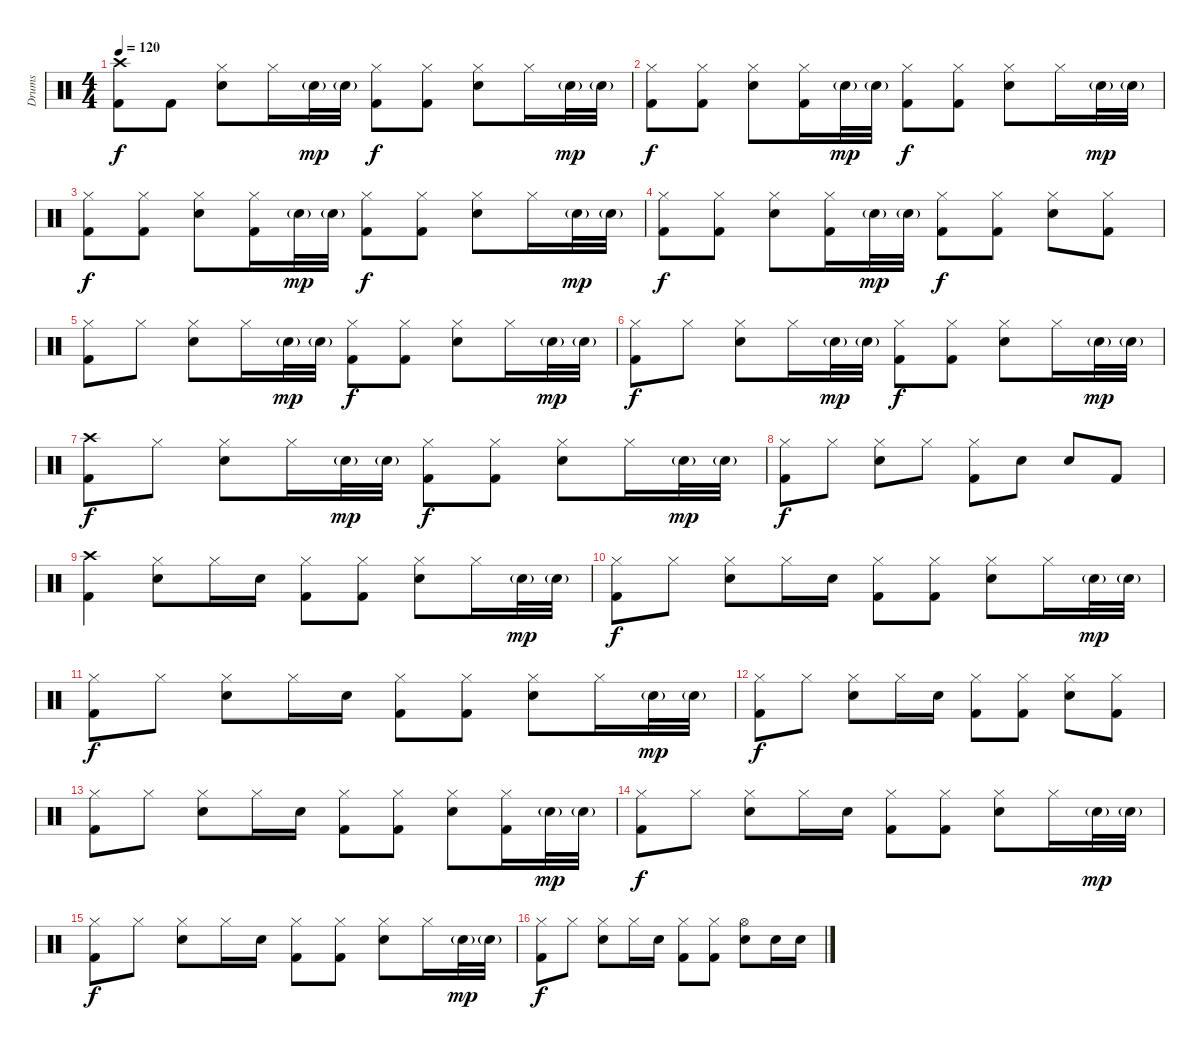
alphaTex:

\track ("Drums" "Drums") {instrument percussion}
\staff {score}
\articulation defaults
\ts (4 4)
\tempo 120
\clef neutral
\ks c
("Crash high (hit)" "Kick (hit) 2").8{dy f} "Kick (hit) 2".8 ("Hi-Hat (closed)" "Snare (hit) 2").8 "Hi-Hat (closed)".16 "Snare (hit) 2"{g}.32{dy mp} "Snare (hit) 2"{g}.32 ("Hi-Hat (closed)" "Kick (hit) 2").8{dy f} ("Hi-Hat (closed)" "Kick (hit) 2").8 ("Hi-Hat (closed)" "Snare (hit) 2").8 "Hi-Hat (closed)".16 "Snare (hit) 2"{g}.32{dy mp} "Snare (hit) 2"{g}.32 |
("Hi-Hat (closed)" "Kick (hit) 2").8{dy f} ("Hi-Hat (closed)" "Kick (hit) 2").8 ("Hi-Hat (closed)" "Snare (hit) 2").8 ("Hi-Hat (closed)" "Kick (hit) 2").16 "Snare (hit) 2"{g}.32{dy mp} "Snare (hit) 2"{g}.32 ("Hi-Hat (closed)" "Kick (hit) 2").8{dy f} ("Hi-Hat (closed)" "Kick (hit) 2").8 ("Hi-Hat (closed)" "Snare (hit) 2").8 "Hi-Hat (closed)".16 "Snare (hit) 2"{g}.32{dy mp} "Snare (hit) 2"{g}.32 |
("Hi-Hat (closed)" "Kick (hit) 2").8{dy f} ("Hi-Hat (closed)" "Kick (hit) 2").8 ("Hi-Hat (closed)" "Snare (hit) 2").8 ("Hi-Hat (closed)" "Kick (hit) 2").16 "Snare (hit) 2"{g}.32{dy mp} "Snare (hit) 2"{g}.32 ("Hi-Hat (closed)" "Kick (hit) 2").8{dy f} ("Hi-Hat (closed)" "Kick (hit) 2").8 ("Hi-Hat (closed)" "Snare (hit) 2").8 "Hi-Hat (closed)".16 "Snare (hit) 2"{g}.32{dy mp} "Snare (hit) 2"{g}.32 |
("Hi-Hat (closed)" "Kick (hit) 2").8{dy f} ("Hi-Hat (closed)" "Kick (hit) 2").8 ("Hi-Hat (closed)" "Snare (hit) 2").8 ("Hi-Hat (closed)" "Kick (hit) 2").16 "Snare (hit) 2"{g}.32{dy mp} "Snare (hit) 2"{g}.32 ("Hi-Hat (closed)" "Kick (hit) 2").8{dy f} ("Hi-Hat (closed)" "Kick (hit) 2").8 ("Hi-Hat (closed)" "Snare (hit) 2").8 ("Hi-Hat (closed)" "Kick (hit) 2").8 |
("Hi-Hat (closed)" "Kick (hit) 2").8 "Hi-Hat (closed)".8 ("Hi-Hat (closed)" "Snare (hit) 2").8 "Hi-Hat (closed)".16 "Snare (hit) 2"{g}.32{dy mp} "Snare (hit) 2"{g}.32 ("Hi-Hat (closed)" "Kick (hit) 2").8{dy f} ("Hi-Hat (closed)" "Kick (hit) 2").8 ("Hi-Hat (closed)" "Snare (hit) 2").8 "Hi-Hat (closed)".16 "Snare (hit) 2"{g}.32{dy mp} "Snare (hit) 2"{g}.32 |
("Hi-Hat (closed)" "Kick (hit) 2").8{dy f} "Hi-Hat (closed)".8 ("Hi-Hat (closed)" "Snare (hit) 2").8 "Hi-Hat (closed)".16 "Snare (hit) 2"{g}.32{dy mp} "Snare (hit) 2"{g}.32 ("Hi-Hat (closed)" "Kick (hit) 2").8{dy f} ("Hi-Hat (closed)" "Kick (hit) 2").8 ("Hi-Hat (closed)" "Snare (hit) 2").8 "Hi-Hat (closed)".16 "Snare (hit) 2"{g}.32{dy mp} "Snare (hit) 2"{g}.32 |
("Crash high (hit)" "Kick (hit) 2").8{dy f} "Hi-Hat (closed)".8 ("Hi-Hat (closed)" "Snare (hit) 2").8 "Hi-Hat (closed)".16 "Snare (hit) 2"{g}.32{dy mp} "Snare (hit) 2"{g}.32 ("Hi-Hat (closed)" "Kick (hit) 2").8{dy f} ("Hi-Hat (closed)" "Kick (hit) 2").8 ("Hi-Hat (closed)" "Snare (hit) 2").8 "Hi-Hat (closed)".16 "Snare (hit) 2"{g}.32{dy mp} "Snare (hit) 2"{g}.32 |
("Hi-Hat (closed)" "Kick (hit) 2").8{dy f} "Hi-Hat (closed)".8 ("Hi-Hat (closed)" "Snare (hit) 2").8 "Hi-Hat (closed)".8 ("Hi-Hat (closed)" "Kick (hit) 2").8 "Snare (hit) 2".8 "Snare (hit) 2".8 "Kick (hit) 2".8 |
("Crash high (hit)" "Kick (hit) 2").4 ("Hi-Hat (closed)" "Snare (hit) 2").8 "Hi-Hat (closed)".16 "Snare (hit) 2".16 ("Hi-Hat (closed)" "Kick (hit) 2").8 ("Hi-Hat (closed)" "Kick (hit) 2").8 ("Hi-Hat (closed)" "Snare (hit) 2").8 "Hi-Hat (closed)".16 "Snare (hit) 2"{g}.32{dy mp} "Snare (hit) 2"{g}.32 |
("Hi-Hat (closed)" "Kick (hit) 2").8{dy f} "Hi-Hat (closed)".8 ("Hi-Hat (closed)" "Snare (hit) 2").8 "Hi-Hat (closed)".16 "Snare (hit) 2".16 ("Hi-Hat (closed)" "Kick (hit) 2").8 ("Hi-Hat (closed)" "Kick (hit) 2").8 ("Hi-Hat (closed)" "Snare (hit) 2").8 "Hi-Hat (closed)".16 "Snare (hit) 2"{g}.32{dy mp} "Snare (hit) 2"{g}.32 |
("Hi-Hat (closed)" "Kick (hit) 2").8{dy f} "Hi-Hat (closed)".8 ("Hi-Hat (closed)" "Snare (hit) 2").8 "Hi-Hat (closed)".16 "Snare (hit) 2".16 ("Hi-Hat (closed)" "Kick (hit) 2").8 ("Hi-Hat (closed)" "Kick (hit) 2").8 ("Hi-Hat (closed)" "Snare (hit) 2").8 "Hi-Hat (closed)".16 "Snare (hit) 2"{g}.32{dy mp} "Snare (hit) 2"{g}.32 |
("Hi-Hat (closed)" "Kick (hit) 2").8{dy f} "Hi-Hat (closed)".8 ("Hi-Hat (closed)" "Snare (hit) 2").8 "Hi-Hat (closed)".16 "Snare (hit) 2".16 ("Hi-Hat (closed)" "Kick (hit) 2").8 ("Hi-Hat (closed)" "Kick (hit) 2").8 ("Hi-Hat (closed)" "Snare (hit) 2").8 ("Hi-Hat (closed)" "Kick (hit) 2").8 |
("Hi-Hat (closed)" "Kick (hit) 2").8 "Hi-Hat (closed)".8 ("Hi-Hat (closed)" "Snare (hit) 2").8 "Hi-Hat (closed)".16 "Snare (hit) 2".16 ("Hi-Hat (closed)" "Kick (hit) 2").8 ("Hi-Hat (closed)" "Kick (hit) 2").8 ("Hi-Hat (closed)" "Snare (hit) 2").8 ("Hi-Hat (closed)" "Kick (hit) 2").16 "Snare (hit) 2"{g}.32{dy mp} "Snare (hit) 2"{g}.32 |
("Hi-Hat (closed)" "Kick (hit) 2").8{dy f} "Hi-Hat (closed)".8 ("Hi-Hat (closed)" "Snare (hit) 2").8 "Hi-Hat (closed)".16 "Snare (hit) 2".16 ("Hi-Hat (closed)" "Kick (hit) 2").8 ("Hi-Hat (closed)" "Kick (hit) 2").8 ("Hi-Hat (closed)" "Snare (hit) 2").8 "Hi-Hat (closed)".16 "Snare (hit) 2"{g}.32{dy mp} "Snare (hit) 2"{g}.32 |
("Hi-Hat (closed)" "Kick (hit) 2").8{dy f} "Hi-Hat (closed)".8 ("Hi-Hat (closed)" "Snare (hit) 2").8 "Hi-Hat (closed)".16 "Snare (hit) 2".16 ("Hi-Hat (closed)" "Kick (hit) 2").8 ("Hi-Hat (closed)" "Kick (hit) 2").8 ("Hi-Hat (closed)" "Snare (hit) 2").8 "Hi-Hat (closed)".16 "Snare (hit) 2"{g}.32{dy mp} "Snare (hit) 2"{g}.32 |
("Hi-Hat (closed)" "Kick (hit) 2").8{dy f} "Hi-Hat (closed)".8 ("Hi-Hat (closed)" "Snare (hit) 2").8 "Hi-Hat (closed)".16 "Snare (hit) 2".16 ("Hi-Hat (closed)" "Kick (hit) 2").8 ("Hi-Hat (closed)" "Kick (hit) 2").8 ("Hi-Hat (open)" "Snare (hit) 2").8 "Snare (hit) 2".16 "Snare (hit) 2".16
